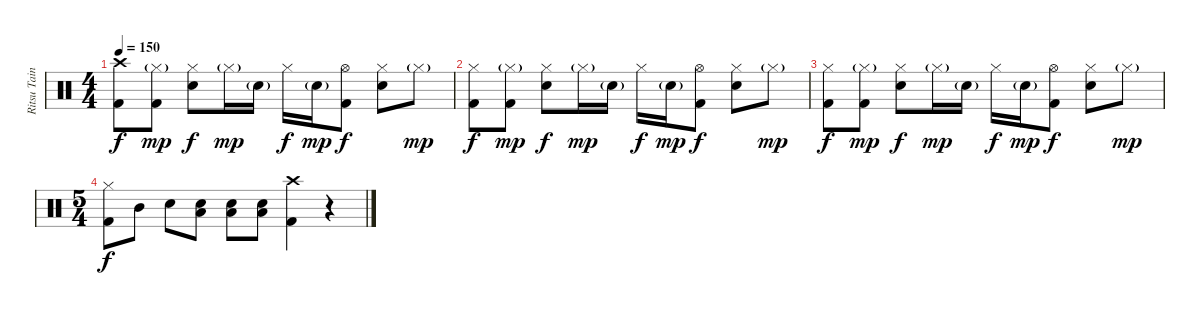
\track ("Ritsu Tainaka" "Ritsu Tain") {instrument percussion}
\staff {score}
\articulation defaults
\ts (4 4)
\tempo 150
\clef neutral
\ks c
("Crash high (hit)" "Kick (hit) 2").8{dy f} ("Hi-Hat (closed)"{g} "Kick (hit) 2").8{dy mp} ("Hi-Hat (closed)" "Electric Snare (hit)").8{dy f} "Hi-Hat (closed)"{g}.16{dy mp} "Electric Snare (hit)"{g}.16 "Hi-Hat (closed)".16{dy f} "Electric Snare (hit)"{g}.16{dy mp} ("Hi-Hat (open)" "Kick (hit) 2").8{dy f} ("Hi-Hat (closed)" "Electric Snare (hit)").8 "Hi-Hat (closed)"{g}.8{dy mp} |
("Hi-Hat (closed)" "Kick (hit) 2").8{dy f} ("Hi-Hat (closed)"{g} "Kick (hit) 2").8{dy mp} ("Hi-Hat (closed)" "Electric Snare (hit)").8{dy f} "Hi-Hat (closed)"{g}.16{dy mp} "Electric Snare (hit)"{g}.16 "Hi-Hat (closed)".16{dy f} "Electric Snare (hit)"{g}.16{dy mp} ("Hi-Hat (open)" "Kick (hit) 2").8{dy f} ("Hi-Hat (closed)" "Electric Snare (hit)").8 "Hi-Hat (closed)"{g}.8{dy mp} |
("Hi-Hat (closed)" "Kick (hit) 2").8{dy f} ("Hi-Hat (closed)"{g} "Kick (hit) 2").8{dy mp} ("Hi-Hat (closed)" "Electric Snare (hit)").8{dy f} "Hi-Hat (closed)"{g}.16{dy mp} "Electric Snare (hit)"{g}.16 "Hi-Hat (closed)".16{dy f} "Electric Snare (hit)"{g}.16{dy mp} ("Hi-Hat (open)" "Kick (hit) 2").8{dy f} ("Hi-Hat (closed)" "Electric Snare (hit)").8 "Hi-Hat (closed)"{g}.8{dy mp} |
\ts (5 4)
("Hi-Hat (closed)" "Kick (hit) 2").8{dy f} "Mid Tom (hit)".8 "Electric Snare (hit)".8 ("Electric Snare (hit)" "Low Floor Tom (hit)").8 ("Electric Snare (hit)" "Low Floor Tom (hit)").8 ("Electric Snare (hit)" "Low Floor Tom (hit)").8 ("Crash high (hit)" "Kick (hit) 2").4 r.4
